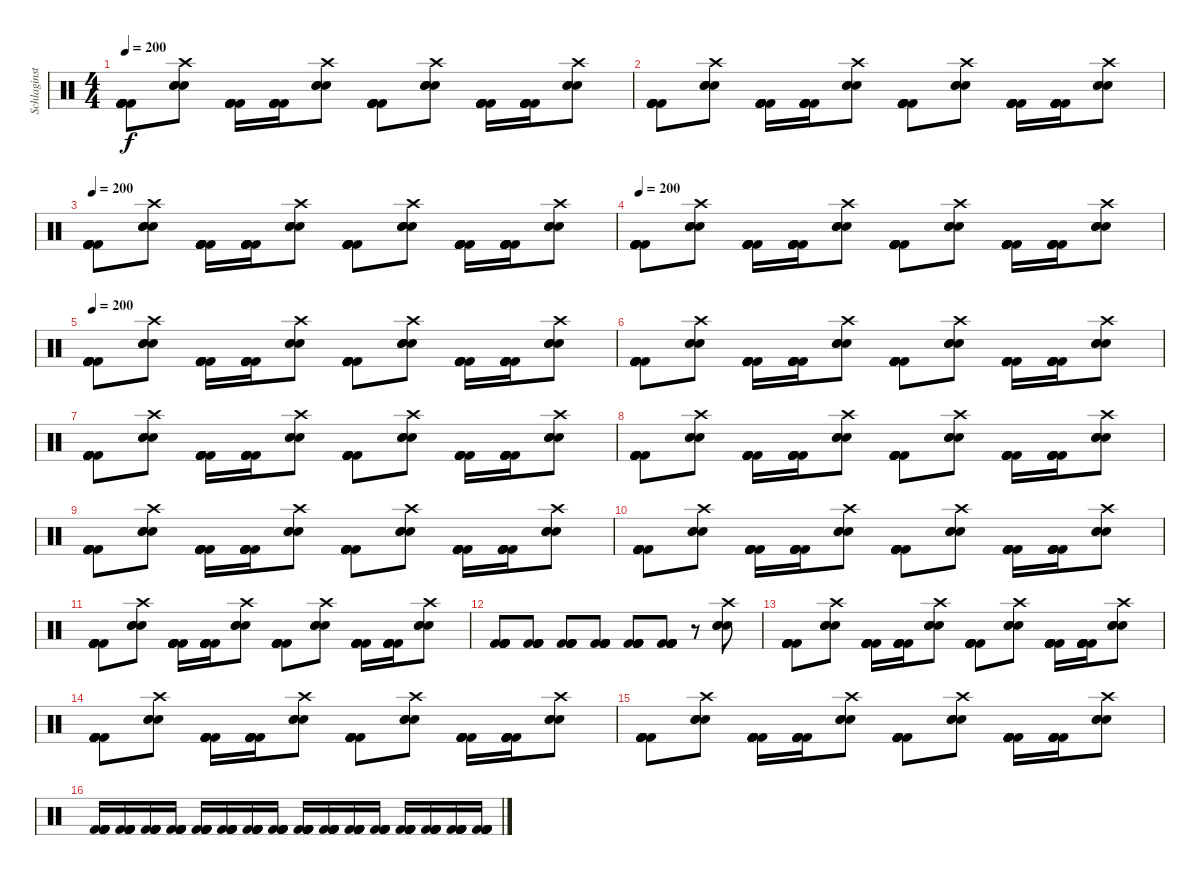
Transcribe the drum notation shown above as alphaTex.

\track ("Schlaginstrumente - Auswahl" "Schlaginst") {instrument percussion}
\staff {score}
\articulation defaults
\ts (4 4)
\tempo 200
\clef neutral
\ks c
("Kick (hit) 2" "Kick (hit) 2" "Kick (hit) 2" "Kick (hit) 2" "Kick (hit) 2" "Kick (hit) 2").8{dy f} ("Electric Snare (hit)" "Electric Snare (hit)" "Electric Snare (hit)" "Crash high (hit)").8 ("Kick (hit) 2" "Kick (hit) 2" "Kick (hit) 2" "Kick (hit) 2" "Kick (hit) 2" "Kick (hit) 2").16 ("Kick (hit) 2" "Kick (hit) 2" "Kick (hit) 2" "Kick (hit) 2" "Kick (hit) 2" "Kick (hit) 2").16 ("Electric Snare (hit)" "Electric Snare (hit)" "Electric Snare (hit)" "Crash high (hit)").8 ("Kick (hit) 2" "Kick (hit) 2" "Kick (hit) 2" "Kick (hit) 2" "Kick (hit) 2" "Kick (hit) 2").8 ("Electric Snare (hit)" "Electric Snare (hit)" "Electric Snare (hit)" "Crash high (hit)").8 ("Kick (hit) 2" "Kick (hit) 2" "Kick (hit) 2" "Kick (hit) 2" "Kick (hit) 2" "Kick (hit) 2").16 ("Kick (hit) 2" "Kick (hit) 2" "Kick (hit) 2" "Kick (hit) 2" "Kick (hit) 2" "Kick (hit) 2").16 ("Electric Snare (hit)" "Electric Snare (hit)" "Electric Snare (hit)" "Crash high (hit)").8 |
("Kick (hit) 2" "Kick (hit) 2" "Kick (hit) 2" "Kick (hit) 2" "Kick (hit) 2" "Kick (hit) 2").8 ("Electric Snare (hit)" "Electric Snare (hit)" "Electric Snare (hit)" "Crash high (hit)").8 ("Kick (hit) 2" "Kick (hit) 2" "Kick (hit) 2" "Kick (hit) 2" "Kick (hit) 2" "Kick (hit) 2").16 ("Kick (hit) 2" "Kick (hit) 2" "Kick (hit) 2" "Kick (hit) 2" "Kick (hit) 2" "Kick (hit) 2").16 ("Electric Snare (hit)" "Electric Snare (hit)" "Electric Snare (hit)" "Crash high (hit)").8 ("Kick (hit) 2" "Kick (hit) 2" "Kick (hit) 2" "Kick (hit) 2" "Kick (hit) 2" "Kick (hit) 2").8 ("Electric Snare (hit)" "Electric Snare (hit)" "Electric Snare (hit)" "Crash high (hit)").8 ("Kick (hit) 2" "Kick (hit) 2" "Kick (hit) 2" "Kick (hit) 2" "Kick (hit) 2" "Kick (hit) 2").16 ("Kick (hit) 2" "Kick (hit) 2" "Kick (hit) 2" "Kick (hit) 2" "Kick (hit) 2" "Kick (hit) 2").16 ("Electric Snare (hit)" "Electric Snare (hit)" "Electric Snare (hit)" "Crash high (hit)").8 |
\tempo 200
("Kick (hit) 2" "Kick (hit) 2" "Kick (hit) 2" "Kick (hit) 2" "Kick (hit) 2" "Kick (hit) 2").8 ("Electric Snare (hit)" "Electric Snare (hit)" "Electric Snare (hit)" "Crash high (hit)").8 ("Kick (hit) 2" "Kick (hit) 2" "Kick (hit) 2" "Kick (hit) 2" "Kick (hit) 2" "Kick (hit) 2").16 ("Kick (hit) 2" "Kick (hit) 2" "Kick (hit) 2" "Kick (hit) 2" "Kick (hit) 2" "Kick (hit) 2").16 ("Electric Snare (hit)" "Electric Snare (hit)" "Electric Snare (hit)" "Crash high (hit)").8 ("Kick (hit) 2" "Kick (hit) 2" "Kick (hit) 2" "Kick (hit) 2" "Kick (hit) 2" "Kick (hit) 2").8 ("Electric Snare (hit)" "Electric Snare (hit)" "Electric Snare (hit)" "Crash high (hit)").8 ("Kick (hit) 2" "Kick (hit) 2" "Kick (hit) 2" "Kick (hit) 2" "Kick (hit) 2" "Kick (hit) 2").16 ("Kick (hit) 2" "Kick (hit) 2" "Kick (hit) 2" "Kick (hit) 2" "Kick (hit) 2" "Kick (hit) 2").16 ("Electric Snare (hit)" "Electric Snare (hit)" "Electric Snare (hit)" "Crash high (hit)").8 |
\tempo 200
("Kick (hit) 2" "Kick (hit) 2" "Kick (hit) 2" "Kick (hit) 2" "Kick (hit) 2" "Kick (hit) 2").8 ("Electric Snare (hit)" "Electric Snare (hit)" "Electric Snare (hit)" "Crash high (hit)").8 ("Kick (hit) 2" "Kick (hit) 2" "Kick (hit) 2" "Kick (hit) 2" "Kick (hit) 2" "Kick (hit) 2").16 ("Kick (hit) 2" "Kick (hit) 2" "Kick (hit) 2" "Kick (hit) 2" "Kick (hit) 2" "Kick (hit) 2").16 ("Electric Snare (hit)" "Electric Snare (hit)" "Electric Snare (hit)" "Crash high (hit)").8 ("Kick (hit) 2" "Kick (hit) 2" "Kick (hit) 2" "Kick (hit) 2" "Kick (hit) 2" "Kick (hit) 2").8 ("Electric Snare (hit)" "Electric Snare (hit)" "Electric Snare (hit)" "Crash high (hit)").8 ("Kick (hit) 2" "Kick (hit) 2" "Kick (hit) 2" "Kick (hit) 2" "Kick (hit) 2" "Kick (hit) 2").16 ("Kick (hit) 2" "Kick (hit) 2" "Kick (hit) 2" "Kick (hit) 2" "Kick (hit) 2" "Kick (hit) 2").16 ("Electric Snare (hit)" "Electric Snare (hit)" "Electric Snare (hit)" "Crash high (hit)").8 |
\tempo 200
("Kick (hit) 2" "Kick (hit) 2" "Kick (hit) 2" "Kick (hit) 2" "Kick (hit) 2" "Kick (hit) 2").8 ("Electric Snare (hit)" "Electric Snare (hit)" "Electric Snare (hit)" "Crash high (hit)").8 ("Kick (hit) 2" "Kick (hit) 2" "Kick (hit) 2" "Kick (hit) 2" "Kick (hit) 2" "Kick (hit) 2").16 ("Kick (hit) 2" "Kick (hit) 2" "Kick (hit) 2" "Kick (hit) 2" "Kick (hit) 2" "Kick (hit) 2").16 ("Electric Snare (hit)" "Electric Snare (hit)" "Electric Snare (hit)" "Crash high (hit)").8 ("Kick (hit) 2" "Kick (hit) 2" "Kick (hit) 2" "Kick (hit) 2" "Kick (hit) 2" "Kick (hit) 2").8 ("Electric Snare (hit)" "Electric Snare (hit)" "Electric Snare (hit)" "Crash high (hit)").8 ("Kick (hit) 2" "Kick (hit) 2" "Kick (hit) 2" "Kick (hit) 2" "Kick (hit) 2" "Kick (hit) 2").16 ("Kick (hit) 2" "Kick (hit) 2" "Kick (hit) 2" "Kick (hit) 2" "Kick (hit) 2" "Kick (hit) 2").16 ("Electric Snare (hit)" "Electric Snare (hit)" "Electric Snare (hit)" "Crash high (hit)").8 |
("Kick (hit) 2" "Kick (hit) 2" "Kick (hit) 2" "Kick (hit) 2" "Kick (hit) 2" "Kick (hit) 2").8 ("Electric Snare (hit)" "Electric Snare (hit)" "Electric Snare (hit)" "Crash high (hit)").8 ("Kick (hit) 2" "Kick (hit) 2" "Kick (hit) 2" "Kick (hit) 2" "Kick (hit) 2" "Kick (hit) 2").16 ("Kick (hit) 2" "Kick (hit) 2" "Kick (hit) 2" "Kick (hit) 2" "Kick (hit) 2" "Kick (hit) 2").16 ("Electric Snare (hit)" "Electric Snare (hit)" "Electric Snare (hit)" "Crash high (hit)").8 ("Kick (hit) 2" "Kick (hit) 2" "Kick (hit) 2" "Kick (hit) 2" "Kick (hit) 2" "Kick (hit) 2").8 ("Electric Snare (hit)" "Electric Snare (hit)" "Electric Snare (hit)" "Crash high (hit)").8 ("Kick (hit) 2" "Kick (hit) 2" "Kick (hit) 2" "Kick (hit) 2" "Kick (hit) 2" "Kick (hit) 2").16 ("Kick (hit) 2" "Kick (hit) 2" "Kick (hit) 2" "Kick (hit) 2" "Kick (hit) 2" "Kick (hit) 2").16 ("Electric Snare (hit)" "Electric Snare (hit)" "Electric Snare (hit)" "Crash high (hit)").8 |
("Kick (hit) 2" "Kick (hit) 2" "Kick (hit) 2" "Kick (hit) 2" "Kick (hit) 2" "Kick (hit) 2").8 ("Electric Snare (hit)" "Electric Snare (hit)" "Electric Snare (hit)" "Crash high (hit)").8 ("Kick (hit) 2" "Kick (hit) 2" "Kick (hit) 2" "Kick (hit) 2" "Kick (hit) 2" "Kick (hit) 2").16 ("Kick (hit) 2" "Kick (hit) 2" "Kick (hit) 2" "Kick (hit) 2" "Kick (hit) 2" "Kick (hit) 2").16 ("Electric Snare (hit)" "Electric Snare (hit)" "Electric Snare (hit)" "Crash high (hit)").8 ("Kick (hit) 2" "Kick (hit) 2" "Kick (hit) 2" "Kick (hit) 2" "Kick (hit) 2" "Kick (hit) 2").8 ("Electric Snare (hit)" "Electric Snare (hit)" "Electric Snare (hit)" "Crash high (hit)").8 ("Kick (hit) 2" "Kick (hit) 2" "Kick (hit) 2" "Kick (hit) 2" "Kick (hit) 2" "Kick (hit) 2").16 ("Kick (hit) 2" "Kick (hit) 2" "Kick (hit) 2" "Kick (hit) 2" "Kick (hit) 2" "Kick (hit) 2").16 ("Electric Snare (hit)" "Electric Snare (hit)" "Electric Snare (hit)" "Crash high (hit)").8 |
("Kick (hit) 2" "Kick (hit) 2" "Kick (hit) 2" "Kick (hit) 2" "Kick (hit) 2" "Kick (hit) 2").8 ("Electric Snare (hit)" "Electric Snare (hit)" "Electric Snare (hit)" "Crash high (hit)").8 ("Kick (hit) 2" "Kick (hit) 2" "Kick (hit) 2" "Kick (hit) 2" "Kick (hit) 2" "Kick (hit) 2").16 ("Kick (hit) 2" "Kick (hit) 2" "Kick (hit) 2" "Kick (hit) 2" "Kick (hit) 2" "Kick (hit) 2").16 ("Electric Snare (hit)" "Electric Snare (hit)" "Electric Snare (hit)" "Crash high (hit)").8 ("Kick (hit) 2" "Kick (hit) 2" "Kick (hit) 2" "Kick (hit) 2" "Kick (hit) 2" "Kick (hit) 2").8 ("Electric Snare (hit)" "Electric Snare (hit)" "Electric Snare (hit)" "Crash high (hit)").8 ("Kick (hit) 2" "Kick (hit) 2" "Kick (hit) 2" "Kick (hit) 2" "Kick (hit) 2" "Kick (hit) 2").16 ("Kick (hit) 2" "Kick (hit) 2" "Kick (hit) 2" "Kick (hit) 2" "Kick (hit) 2" "Kick (hit) 2").16 ("Electric Snare (hit)" "Electric Snare (hit)" "Electric Snare (hit)" "Crash high (hit)").8 |
("Kick (hit) 2" "Kick (hit) 2" "Kick (hit) 2" "Kick (hit) 2" "Kick (hit) 2" "Kick (hit) 2").8 ("Electric Snare (hit)" "Electric Snare (hit)" "Electric Snare (hit)" "Crash high (hit)").8 ("Kick (hit) 2" "Kick (hit) 2" "Kick (hit) 2" "Kick (hit) 2" "Kick (hit) 2" "Kick (hit) 2").16 ("Kick (hit) 2" "Kick (hit) 2" "Kick (hit) 2" "Kick (hit) 2" "Kick (hit) 2" "Kick (hit) 2").16 ("Electric Snare (hit)" "Electric Snare (hit)" "Electric Snare (hit)" "Crash high (hit)").8 ("Kick (hit) 2" "Kick (hit) 2" "Kick (hit) 2" "Kick (hit) 2" "Kick (hit) 2" "Kick (hit) 2").8 ("Electric Snare (hit)" "Electric Snare (hit)" "Electric Snare (hit)" "Crash high (hit)").8 ("Kick (hit) 2" "Kick (hit) 2" "Kick (hit) 2" "Kick (hit) 2" "Kick (hit) 2" "Kick (hit) 2").16 ("Kick (hit) 2" "Kick (hit) 2" "Kick (hit) 2" "Kick (hit) 2" "Kick (hit) 2" "Kick (hit) 2").16 ("Electric Snare (hit)" "Electric Snare (hit)" "Electric Snare (hit)" "Crash high (hit)").8 |
("Kick (hit) 2" "Kick (hit) 2" "Kick (hit) 2" "Kick (hit) 2" "Kick (hit) 2" "Kick (hit) 2").8 ("Electric Snare (hit)" "Electric Snare (hit)" "Electric Snare (hit)" "Crash high (hit)").8 ("Kick (hit) 2" "Kick (hit) 2" "Kick (hit) 2" "Kick (hit) 2" "Kick (hit) 2" "Kick (hit) 2").16 ("Kick (hit) 2" "Kick (hit) 2" "Kick (hit) 2" "Kick (hit) 2" "Kick (hit) 2" "Kick (hit) 2").16 ("Electric Snare (hit)" "Electric Snare (hit)" "Electric Snare (hit)" "Crash high (hit)").8 ("Kick (hit) 2" "Kick (hit) 2" "Kick (hit) 2" "Kick (hit) 2" "Kick (hit) 2" "Kick (hit) 2").8 ("Electric Snare (hit)" "Electric Snare (hit)" "Electric Snare (hit)" "Crash high (hit)").8 ("Kick (hit) 2" "Kick (hit) 2" "Kick (hit) 2" "Kick (hit) 2" "Kick (hit) 2" "Kick (hit) 2").16 ("Kick (hit) 2" "Kick (hit) 2" "Kick (hit) 2" "Kick (hit) 2" "Kick (hit) 2" "Kick (hit) 2").16 ("Electric Snare (hit)" "Electric Snare (hit)" "Electric Snare (hit)" "Crash high (hit)").8 |
("Kick (hit) 2" "Kick (hit) 2" "Kick (hit) 2" "Kick (hit) 2" "Kick (hit) 2" "Kick (hit) 2").8 ("Electric Snare (hit)" "Electric Snare (hit)" "Electric Snare (hit)" "Crash high (hit)").8 ("Kick (hit) 2" "Kick (hit) 2" "Kick (hit) 2" "Kick (hit) 2" "Kick (hit) 2" "Kick (hit) 2").16 ("Kick (hit) 2" "Kick (hit) 2" "Kick (hit) 2" "Kick (hit) 2" "Kick (hit) 2" "Kick (hit) 2").16 ("Electric Snare (hit)" "Electric Snare (hit)" "Electric Snare (hit)" "Crash high (hit)").8 ("Kick (hit) 2" "Kick (hit) 2" "Kick (hit) 2" "Kick (hit) 2" "Kick (hit) 2" "Kick (hit) 2").8 ("Electric Snare (hit)" "Electric Snare (hit)" "Electric Snare (hit)" "Crash high (hit)").8 ("Kick (hit) 2" "Kick (hit) 2" "Kick (hit) 2" "Kick (hit) 2" "Kick (hit) 2" "Kick (hit) 2").16 ("Kick (hit) 2" "Kick (hit) 2" "Kick (hit) 2" "Kick (hit) 2" "Kick (hit) 2" "Kick (hit) 2").16 ("Electric Snare (hit)" "Electric Snare (hit)" "Electric Snare (hit)" "Crash high (hit)").8 |
("Kick (hit) 2" "Kick (hit) 2" "Kick (hit) 2" "Kick (hit) 2" "Kick (hit) 2" "Kick (hit) 2").8 ("Kick (hit) 2" "Kick (hit) 2" "Kick (hit) 2" "Kick (hit) 2" "Kick (hit) 2" "Kick (hit) 2").8 ("Kick (hit) 2" "Kick (hit) 2" "Kick (hit) 2" "Kick (hit) 2" "Kick (hit) 2" "Kick (hit) 2").8 ("Kick (hit) 2" "Kick (hit) 2" "Kick (hit) 2" "Kick (hit) 2" "Kick (hit) 2" "Kick (hit) 2").8 ("Kick (hit) 2" "Kick (hit) 2" "Kick (hit) 2" "Kick (hit) 2" "Kick (hit) 2" "Kick (hit) 2").8 ("Kick (hit) 2" "Kick (hit) 2" "Kick (hit) 2" "Kick (hit) 2" "Kick (hit) 2" "Kick (hit) 2").8 r.8 ("Electric Snare (hit)" "Electric Snare (hit)" "Electric Snare (hit)" "Crash high (hit)").8 |
("Kick (hit) 2" "Kick (hit) 2" "Kick (hit) 2" "Kick (hit) 2" "Kick (hit) 2" "Kick (hit) 2").8 ("Electric Snare (hit)" "Electric Snare (hit)" "Electric Snare (hit)" "Crash high (hit)").8 ("Kick (hit) 2" "Kick (hit) 2" "Kick (hit) 2" "Kick (hit) 2" "Kick (hit) 2" "Kick (hit) 2").16 ("Kick (hit) 2" "Kick (hit) 2" "Kick (hit) 2" "Kick (hit) 2" "Kick (hit) 2" "Kick (hit) 2").16 ("Electric Snare (hit)" "Electric Snare (hit)" "Electric Snare (hit)" "Crash high (hit)").8 ("Kick (hit) 2" "Kick (hit) 2" "Kick (hit) 2" "Kick (hit) 2" "Kick (hit) 2" "Kick (hit) 2").8 ("Electric Snare (hit)" "Electric Snare (hit)" "Electric Snare (hit)" "Crash high (hit)").8 ("Kick (hit) 2" "Kick (hit) 2" "Kick (hit) 2" "Kick (hit) 2" "Kick (hit) 2" "Kick (hit) 2").16 ("Kick (hit) 2" "Kick (hit) 2" "Kick (hit) 2" "Kick (hit) 2" "Kick (hit) 2" "Kick (hit) 2").16 ("Electric Snare (hit)" "Electric Snare (hit)" "Electric Snare (hit)" "Crash high (hit)").8 |
("Kick (hit) 2" "Kick (hit) 2" "Kick (hit) 2" "Kick (hit) 2" "Kick (hit) 2" "Kick (hit) 2").8 ("Electric Snare (hit)" "Electric Snare (hit)" "Electric Snare (hit)" "Crash high (hit)").8 ("Kick (hit) 2" "Kick (hit) 2" "Kick (hit) 2" "Kick (hit) 2" "Kick (hit) 2" "Kick (hit) 2").16 ("Kick (hit) 2" "Kick (hit) 2" "Kick (hit) 2" "Kick (hit) 2" "Kick (hit) 2" "Kick (hit) 2").16 ("Electric Snare (hit)" "Electric Snare (hit)" "Electric Snare (hit)" "Crash high (hit)").8 ("Kick (hit) 2" "Kick (hit) 2" "Kick (hit) 2" "Kick (hit) 2" "Kick (hit) 2" "Kick (hit) 2").8 ("Electric Snare (hit)" "Electric Snare (hit)" "Electric Snare (hit)" "Crash high (hit)").8 ("Kick (hit) 2" "Kick (hit) 2" "Kick (hit) 2" "Kick (hit) 2" "Kick (hit) 2" "Kick (hit) 2").16 ("Kick (hit) 2" "Kick (hit) 2" "Kick (hit) 2" "Kick (hit) 2" "Kick (hit) 2" "Kick (hit) 2").16 ("Electric Snare (hit)" "Electric Snare (hit)" "Electric Snare (hit)" "Crash high (hit)").8 |
("Kick (hit) 2" "Kick (hit) 2" "Kick (hit) 2" "Kick (hit) 2" "Kick (hit) 2" "Kick (hit) 2").8 ("Electric Snare (hit)" "Electric Snare (hit)" "Electric Snare (hit)" "Crash high (hit)").8 ("Kick (hit) 2" "Kick (hit) 2" "Kick (hit) 2" "Kick (hit) 2" "Kick (hit) 2" "Kick (hit) 2").16 ("Kick (hit) 2" "Kick (hit) 2" "Kick (hit) 2" "Kick (hit) 2" "Kick (hit) 2" "Kick (hit) 2").16 ("Electric Snare (hit)" "Electric Snare (hit)" "Electric Snare (hit)" "Crash high (hit)").8 ("Kick (hit) 2" "Kick (hit) 2" "Kick (hit) 2" "Kick (hit) 2" "Kick (hit) 2" "Kick (hit) 2").8 ("Electric Snare (hit)" "Electric Snare (hit)" "Electric Snare (hit)" "Crash high (hit)").8 ("Kick (hit) 2" "Kick (hit) 2" "Kick (hit) 2" "Kick (hit) 2" "Kick (hit) 2" "Kick (hit) 2").16 ("Kick (hit) 2" "Kick (hit) 2" "Kick (hit) 2" "Kick (hit) 2" "Kick (hit) 2" "Kick (hit) 2").16 ("Electric Snare (hit)" "Electric Snare (hit)" "Electric Snare (hit)" "Crash high (hit)").8 |
("Kick (hit) 2" "Kick (hit) 2" "Kick (hit) 2" "Kick (hit) 2" "Kick (hit) 2" "Kick (hit) 2").16 ("Kick (hit) 2" "Kick (hit) 2" "Kick (hit) 2" "Kick (hit) 2" "Kick (hit) 2" "Kick (hit) 2").16 ("Kick (hit) 2" "Kick (hit) 2" "Kick (hit) 2" "Kick (hit) 2" "Kick (hit) 2" "Kick (hit) 2").16 ("Kick (hit) 2" "Kick (hit) 2" "Kick (hit) 2" "Kick (hit) 2" "Kick (hit) 2" "Kick (hit) 2").16 ("Kick (hit) 2" "Kick (hit) 2" "Kick (hit) 2" "Kick (hit) 2" "Kick (hit) 2" "Kick (hit) 2").16 ("Kick (hit) 2" "Kick (hit) 2" "Kick (hit) 2" "Kick (hit) 2" "Kick (hit) 2" "Kick (hit) 2").16 ("Kick (hit) 2" "Kick (hit) 2" "Kick (hit) 2" "Kick (hit) 2" "Kick (hit) 2" "Kick (hit) 2").16 ("Kick (hit) 2" "Kick (hit) 2" "Kick (hit) 2" "Kick (hit) 2" "Kick (hit) 2" "Kick (hit) 2").16 ("Kick (hit) 2" "Kick (hit) 2" "Kick (hit) 2" "Kick (hit) 2" "Kick (hit) 2" "Kick (hit) 2").16 ("Kick (hit) 2" "Kick (hit) 2" "Kick (hit) 2" "Kick (hit) 2" "Kick (hit) 2" "Kick (hit) 2").16 ("Kick (hit) 2" "Kick (hit) 2" "Kick (hit) 2" "Kick (hit) 2" "Kick (hit) 2" "Kick (hit) 2").16 ("Kick (hit) 2" "Kick (hit) 2" "Kick (hit) 2" "Kick (hit) 2" "Kick (hit) 2" "Kick (hit) 2").16 ("Kick (hit) 2" "Kick (hit) 2" "Kick (hit) 2" "Kick (hit) 2" "Kick (hit) 2" "Kick (hit) 2").16 ("Kick (hit) 2" "Kick (hit) 2" "Kick (hit) 2" "Kick (hit) 2" "Kick (hit) 2" "Kick (hit) 2").16 ("Kick (hit) 2" "Kick (hit) 2" "Kick (hit) 2" "Kick (hit) 2" "Kick (hit) 2" "Kick (hit) 2").16 ("Kick (hit) 2" "Kick (hit) 2" "Kick (hit) 2" "Kick (hit) 2" "Kick (hit) 2" "Kick (hit) 2").16
